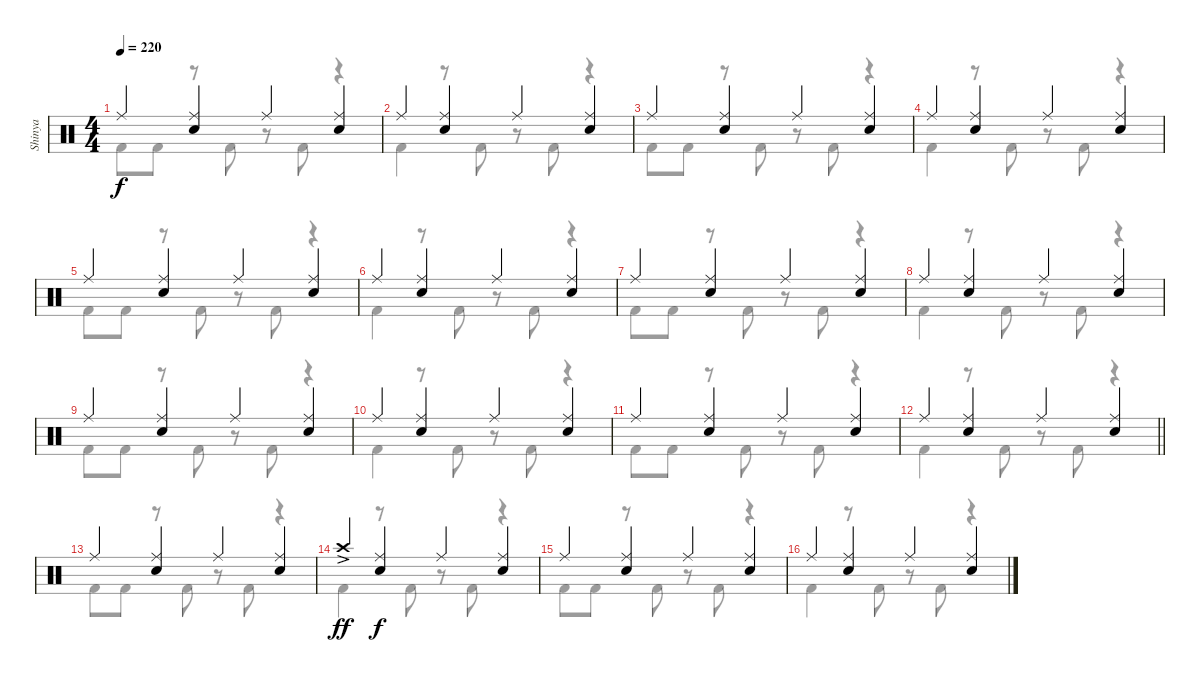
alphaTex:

\track ("Shinya" "Shinya") {instrument percussion}
\staff {score}
\articulation defaults
\voice
\ts (4 4)
\tempo 220
\clef neutral
\ks c "Ride (middle)".4{dy f}
("Ride (middle)" "Snare (hit) 2").4 "Ride (middle)".4 ("Ride (middle)" "Snare (hit) 2").4 |
"Ride (middle)".4 ("Ride (middle)" "Snare (hit) 2").4 "Ride (middle)".4 ("Ride (middle)" "Snare (hit) 2").4 |
"Ride (middle)".4 ("Ride (middle)" "Snare (hit) 2").4 "Ride (middle)".4 ("Ride (middle)" "Snare (hit) 2").4 |
"Ride (middle)".4 ("Ride (middle)" "Snare (hit) 2").4 "Ride (middle)".4 ("Ride (middle)" "Snare (hit) 2").4 |
"Ride (middle)".4 ("Ride (middle)" "Snare (hit) 2").4 "Ride (middle)".4 ("Ride (middle)" "Snare (hit) 2").4 |
"Ride (middle)".4 ("Ride (middle)" "Snare (hit) 2").4 "Ride (middle)".4 ("Ride (middle)" "Snare (hit) 2").4 |
"Ride (middle)".4 ("Ride (middle)" "Snare (hit) 2").4 "Ride (middle)".4 ("Ride (middle)" "Snare (hit) 2").4 |
"Ride (middle)".4 ("Ride (middle)" "Snare (hit) 2").4 "Ride (middle)".4 ("Ride (middle)" "Snare (hit) 2").4 |
"Ride (middle)".4 ("Ride (middle)" "Snare (hit) 2").4 "Ride (middle)".4 ("Ride (middle)" "Snare (hit) 2").4 |
"Ride (middle)".4 ("Ride (middle)" "Snare (hit) 2").4 "Ride (middle)".4 ("Ride (middle)" "Snare (hit) 2").4 |
"Ride (middle)".4 ("Ride (middle)" "Snare (hit) 2").4 "Ride (middle)".4 ("Ride (middle)" "Snare (hit) 2").4 |
\barLineRight lightlight "Ride (middle)".4
("Ride (middle)" "Snare (hit) 2").4 "Ride (middle)".4 ("Ride (middle)" "Snare (hit) 2").4 |
"Ride (middle)".4 ("Ride (middle)" "Snare (hit) 2").4 "Ride (middle)".4 ("Ride (middle)" "Snare (hit) 2").4 |
"Crash high (hit)"{ac}.4{dy ff} ("Ride (middle)" "Snare (hit) 2").4{dy f} "Ride (middle)".4 ("Ride (middle)" "Snare (hit) 2").4 |
"Ride (middle)".4 ("Ride (middle)" "Snare (hit) 2").4 "Ride (middle)".4 ("Ride (middle)" "Snare (hit) 2").4 |
"Ride (middle)".4 ("Ride (middle)" "Snare (hit) 2").4 "Ride (middle)".4 ("Ride (middle)" "Snare (hit) 2").4
\voice
\clef neutral
\ottava regular
\simile none
\ks c "Kick (hit) 2".8{dy f} "Kick (hit) 2".8
r.8 "Kick (hit) 2".8 r.8 "Kick (hit) 2".8 r.4 |
"Kick (hit) 2".4 r.8 "Kick (hit) 2".8 r.8 "Kick (hit) 2".8 r.4 |
"Kick (hit) 2".8 "Kick (hit) 2".8 r.8 "Kick (hit) 2".8 r.8 "Kick (hit) 2".8 r.4 |
"Kick (hit) 2".4 r.8 "Kick (hit) 2".8 r.8 "Kick (hit) 2".8 r.4 |
"Kick (hit) 2".8 "Kick (hit) 2".8 r.8 "Kick (hit) 2".8 r.8 "Kick (hit) 2".8 r.4 |
"Kick (hit) 2".4 r.8 "Kick (hit) 2".8 r.8 "Kick (hit) 2".8 r.4 |
"Kick (hit) 2".8 "Kick (hit) 2".8 r.8 "Kick (hit) 2".8 r.8 "Kick (hit) 2".8 r.4 |
"Kick (hit) 2".4 r.8 "Kick (hit) 2".8 r.8 "Kick (hit) 2".8 r.4 |
"Kick (hit) 2".8 "Kick (hit) 2".8 r.8 "Kick (hit) 2".8 r.8 "Kick (hit) 2".8 r.4 |
"Kick (hit) 2".4 r.8 "Kick (hit) 2".8 r.8 "Kick (hit) 2".8 r.4 |
"Kick (hit) 2".8 "Kick (hit) 2".8 r.8 "Kick (hit) 2".8 r.8 "Kick (hit) 2".8 r.4 |
\barLineRight lightlight "Kick (hit) 2".4
r.8 "Kick (hit) 2".8 r.8 "Kick (hit) 2".8 r.4 |
"Kick (hit) 2".8 "Kick (hit) 2".8 r.8 "Kick (hit) 2".8 r.8 "Kick (hit) 2".8 r.4 |
"Kick (hit) 2".4 r.8 "Kick (hit) 2".8 r.8 "Kick (hit) 2".8 r.4 |
"Kick (hit) 2".8 "Kick (hit) 2".8 r.8 "Kick (hit) 2".8 r.8 "Kick (hit) 2".8 r.4 |
"Kick (hit) 2".4 r.8 "Kick (hit) 2".8 r.8 "Kick (hit) 2".8 r.4
